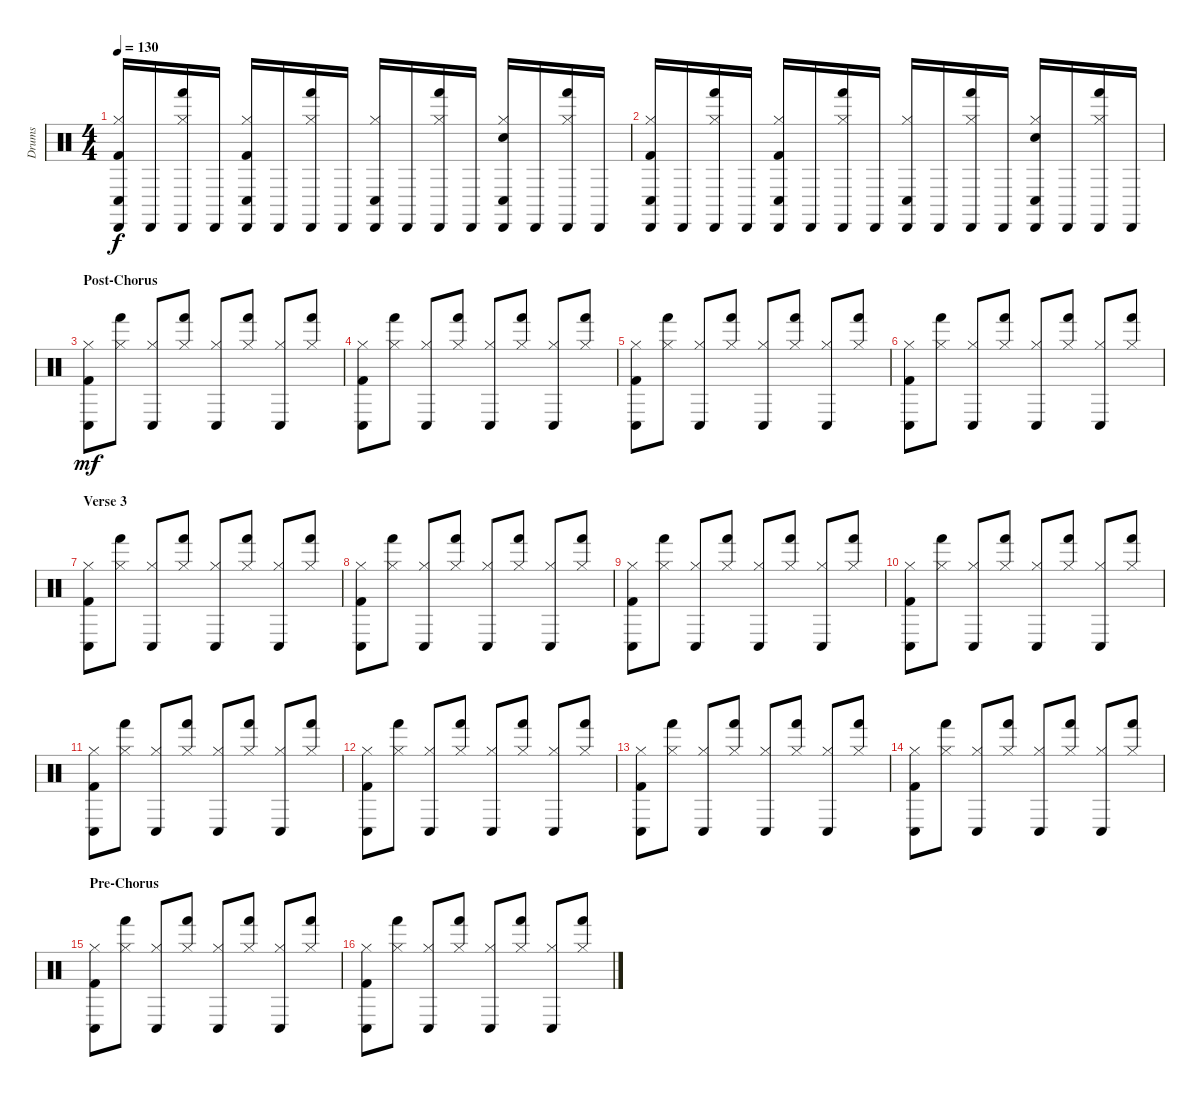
\track ("Drums" "Drums") {instrument percussion}
\staff {score}
\articulation defaults
\ts (4 4)
\tempo 130
\clef neutral
\ks c
("Kick (hit) 2" "Cabasa (hit)" "Conga low (hit)" "Hi-Hat (closed)").16{dy f} "Cabasa (hit)".16 ("Hand (hit)" "Hi-Hat (closed)" "Cabasa (hit)").16 "Cabasa (hit)".16 ("Cabasa (hit)" "Hi-Hat (closed)" "Kick (hit) 2" "Conga low (hit)").16 "Cabasa (hit)".16 ("Hand (hit)" "Cabasa (hit)" "Hi-Hat (closed)").16 "Cabasa (hit)".16 ("Hi-Hat (closed)" "Conga low (hit)" "Cabasa (hit)").16 "Cabasa (hit)".16 ("Hand (hit)" "Cabasa (hit)" "Hi-Hat (closed)").16 "Cabasa (hit)".16 ("Hand Clap (hit)" "Cabasa (hit)" "Hi-Hat (closed)" "Conga low (hit)").16 "Cabasa (hit)".16 ("Cabasa (hit)" "Hi-Hat (closed)" "Hand (hit)").16 "Cabasa (hit)".16 |
("Kick (hit) 2" "Cabasa (hit)" "Conga low (hit)" "Hi-Hat (closed)").16 "Cabasa (hit)".16 ("Hand (hit)" "Hi-Hat (closed)" "Cabasa (hit)").16 "Cabasa (hit)".16 ("Cabasa (hit)" "Hi-Hat (closed)" "Kick (hit) 2" "Conga low (hit)").16 "Cabasa (hit)".16 ("Hand (hit)" "Cabasa (hit)" "Hi-Hat (closed)").16 "Cabasa (hit)".16 ("Hi-Hat (closed)" "Conga low (hit)" "Cabasa (hit)").16 "Cabasa (hit)".16 ("Hand (hit)" "Cabasa (hit)" "Hi-Hat (closed)").16 "Cabasa (hit)".16 ("Hand Clap (hit)" "Cabasa (hit)" "Hi-Hat (closed)" "Conga low (hit)").16 "Cabasa (hit)".16 ("Cabasa (hit)" "Hi-Hat (closed)" "Hand (hit)").16 "Cabasa (hit)".16 |
\section ("" "Post-Chorus")
("Kick (hit) 2" "Conga low (hit)" "Hi-Hat (closed)").8{dy mf} ("Hand (hit)" "Hi-Hat (closed)").8 ("Hi-Hat (closed)" "Conga low (hit)").8 ("Hand (hit)" "Hi-Hat (closed)").8 ("Conga low (hit)" "Hi-Hat (closed)").8 ("Hi-Hat (closed)" "Hand (hit)").8 ("Hi-Hat (closed)" "Conga low (hit)").8 ("Hi-Hat (closed)" "Hand (hit)").8 |
("Kick (hit) 2" "Conga low (hit)" "Hi-Hat (closed)").8 ("Hand (hit)" "Hi-Hat (closed)").8 ("Hi-Hat (closed)" "Conga low (hit)").8 ("Hand (hit)" "Hi-Hat (closed)").8 ("Conga low (hit)" "Hi-Hat (closed)").8 ("Hi-Hat (closed)" "Hand (hit)").8 ("Hi-Hat (closed)" "Conga low (hit)").8 ("Hi-Hat (closed)" "Hand (hit)").8 |
("Kick (hit) 2" "Conga low (hit)" "Hi-Hat (closed)").8 ("Hand (hit)" "Hi-Hat (closed)").8 ("Hi-Hat (closed)" "Conga low (hit)").8 ("Hand (hit)" "Hi-Hat (closed)").8 ("Conga low (hit)" "Hi-Hat (closed)").8 ("Hi-Hat (closed)" "Hand (hit)").8 ("Hi-Hat (closed)" "Conga low (hit)").8 ("Hi-Hat (closed)" "Hand (hit)").8 |
("Kick (hit) 2" "Conga low (hit)" "Hi-Hat (closed)").8 ("Hand (hit)" "Hi-Hat (closed)").8 ("Hi-Hat (closed)" "Conga low (hit)").8 ("Hand (hit)" "Hi-Hat (closed)").8 ("Conga low (hit)" "Hi-Hat (closed)").8 ("Hi-Hat (closed)" "Hand (hit)").8 ("Hi-Hat (closed)" "Conga low (hit)").8 ("Hi-Hat (closed)" "Hand (hit)").8 |
\section ("" "Verse 3")
("Kick (hit) 2" "Conga low (hit)" "Hi-Hat (closed)").8 ("Hand (hit)" "Hi-Hat (closed)").8 ("Hi-Hat (closed)" "Conga low (hit)").8 ("Hand (hit)" "Hi-Hat (closed)").8 ("Conga low (hit)" "Hi-Hat (closed)").8 ("Hi-Hat (closed)" "Hand (hit)").8 ("Hi-Hat (closed)" "Conga low (hit)").8 ("Hi-Hat (closed)" "Hand (hit)").8 |
("Kick (hit) 2" "Conga low (hit)" "Hi-Hat (closed)").8 ("Hand (hit)" "Hi-Hat (closed)").8 ("Hi-Hat (closed)" "Conga low (hit)").8 ("Hand (hit)" "Hi-Hat (closed)").8 ("Conga low (hit)" "Hi-Hat (closed)").8 ("Hi-Hat (closed)" "Hand (hit)").8 ("Hi-Hat (closed)" "Conga low (hit)").8 ("Hi-Hat (closed)" "Hand (hit)").8 |
("Kick (hit) 2" "Conga low (hit)" "Hi-Hat (closed)").8 ("Hand (hit)" "Hi-Hat (closed)").8 ("Hi-Hat (closed)" "Conga low (hit)").8 ("Hand (hit)" "Hi-Hat (closed)").8 ("Conga low (hit)" "Hi-Hat (closed)").8 ("Hi-Hat (closed)" "Hand (hit)").8 ("Hi-Hat (closed)" "Conga low (hit)").8 ("Hi-Hat (closed)" "Hand (hit)").8 |
("Kick (hit) 2" "Conga low (hit)" "Hi-Hat (closed)").8 ("Hand (hit)" "Hi-Hat (closed)").8 ("Hi-Hat (closed)" "Conga low (hit)").8 ("Hand (hit)" "Hi-Hat (closed)").8 ("Conga low (hit)" "Hi-Hat (closed)").8 ("Hi-Hat (closed)" "Hand (hit)").8 ("Hi-Hat (closed)" "Conga low (hit)").8 ("Hi-Hat (closed)" "Hand (hit)").8 |
("Kick (hit) 2" "Conga low (hit)" "Hi-Hat (closed)").8 ("Hand (hit)" "Hi-Hat (closed)").8 ("Hi-Hat (closed)" "Conga low (hit)").8 ("Hand (hit)" "Hi-Hat (closed)").8 ("Conga low (hit)" "Hi-Hat (closed)").8 ("Hi-Hat (closed)" "Hand (hit)").8 ("Hi-Hat (closed)" "Conga low (hit)").8 ("Hi-Hat (closed)" "Hand (hit)").8 |
("Kick (hit) 2" "Conga low (hit)" "Hi-Hat (closed)").8 ("Hand (hit)" "Hi-Hat (closed)").8 ("Hi-Hat (closed)" "Conga low (hit)").8 ("Hand (hit)" "Hi-Hat (closed)").8 ("Conga low (hit)" "Hi-Hat (closed)").8 ("Hi-Hat (closed)" "Hand (hit)").8 ("Hi-Hat (closed)" "Conga low (hit)").8 ("Hi-Hat (closed)" "Hand (hit)").8 |
("Kick (hit) 2" "Conga low (hit)" "Hi-Hat (closed)").8 ("Hand (hit)" "Hi-Hat (closed)").8 ("Hi-Hat (closed)" "Conga low (hit)").8 ("Hand (hit)" "Hi-Hat (closed)").8 ("Conga low (hit)" "Hi-Hat (closed)").8 ("Hi-Hat (closed)" "Hand (hit)").8 ("Hi-Hat (closed)" "Conga low (hit)").8 ("Hi-Hat (closed)" "Hand (hit)").8 |
("Kick (hit) 2" "Conga low (hit)" "Hi-Hat (closed)").8 ("Hand (hit)" "Hi-Hat (closed)").8 ("Hi-Hat (closed)" "Conga low (hit)").8 ("Hand (hit)" "Hi-Hat (closed)").8 ("Conga low (hit)" "Hi-Hat (closed)").8 ("Hi-Hat (closed)" "Hand (hit)").8 ("Hi-Hat (closed)" "Conga low (hit)").8 ("Hi-Hat (closed)" "Hand (hit)").8 |
\section ("" "Pre-Chorus")
("Kick (hit) 2" "Conga low (hit)" "Hi-Hat (closed)").8 ("Hand (hit)" "Hi-Hat (closed)").8 ("Hi-Hat (closed)" "Conga low (hit)").8 ("Hand (hit)" "Hi-Hat (closed)").8 ("Conga low (hit)" "Hi-Hat (closed)").8 ("Hi-Hat (closed)" "Hand (hit)").8 ("Hi-Hat (closed)" "Conga low (hit)").8 ("Hi-Hat (closed)" "Hand (hit)").8 |
("Kick (hit) 2" "Conga low (hit)" "Hi-Hat (closed)").8 ("Hand (hit)" "Hi-Hat (closed)").8 ("Hi-Hat (closed)" "Conga low (hit)").8 ("Hand (hit)" "Hi-Hat (closed)").8 ("Conga low (hit)" "Hi-Hat (closed)").8 ("Hi-Hat (closed)" "Hand (hit)").8 ("Hi-Hat (closed)" "Conga low (hit)").8 ("Hi-Hat (closed)" "Hand (hit)").8
